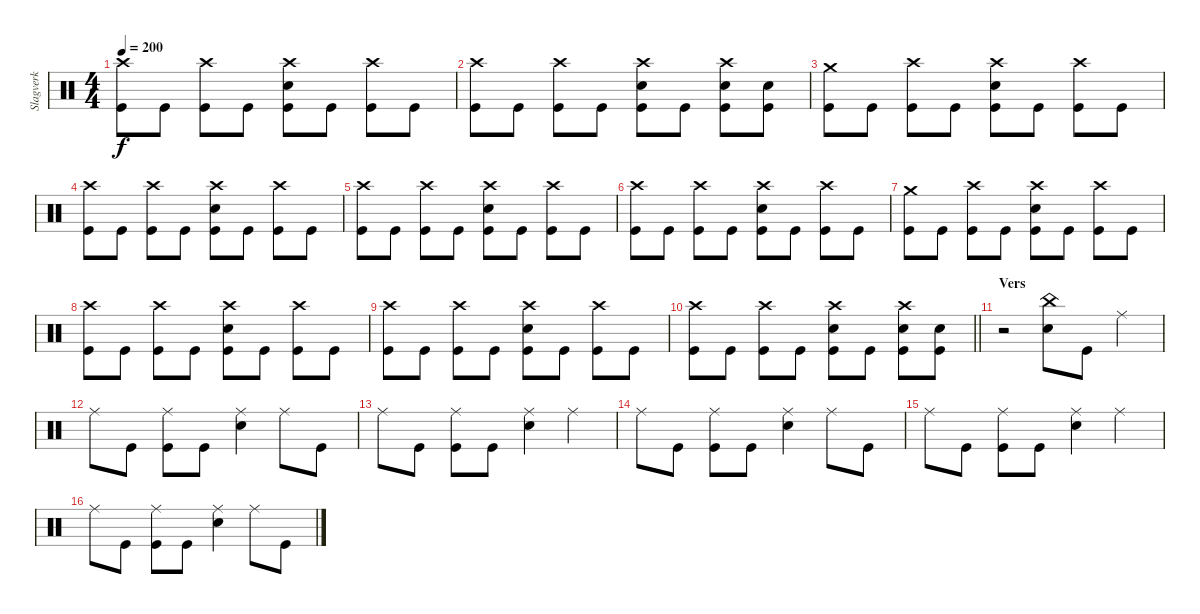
\track ("Slagverk" "Slagverk") {instrument percussion}
\staff {score}
\articulation defaults
\ts (4 4)
\tempo 200
\clef neutral
\ks c
("Crash high (hit)" "Kick (hit)").8{dy f} "Kick (hit)".8 ("Crash high (hit)" "Kick (hit)").8 "Kick (hit)".8 ("Crash high (hit)" "Snare (hit) 2" "Kick (hit)").8 "Kick (hit)".8 ("Crash high (hit)" "Kick (hit)").8 "Kick (hit)".8 |
("Crash high (hit)" "Kick (hit)").8 "Kick (hit)".8 ("Crash high (hit)" "Kick (hit)").8 "Kick (hit)".8 ("Crash high (hit)" "Snare (hit) 2" "Kick (hit)").8 "Kick (hit)".8 ("Crash high (hit)" "Snare (hit) 2" "Kick (hit)").8 ("Snare (hit) 2" "Kick (hit)").8 |
("Crash medium (hit)" "Kick (hit)").8 "Kick (hit)".8 ("Crash high (hit)" "Kick (hit)").8 "Kick (hit)".8 ("Crash high (hit)" "Snare (hit) 2" "Kick (hit)").8 "Kick (hit)".8 ("Crash high (hit)" "Kick (hit)").8 "Kick (hit)".8 |
("Crash high (hit)" "Kick (hit)").8 "Kick (hit)".8 ("Crash high (hit)" "Kick (hit)").8 "Kick (hit)".8 ("Crash high (hit)" "Snare (hit) 2" "Kick (hit)").8 "Kick (hit)".8 ("Crash high (hit)" "Kick (hit)").8 "Kick (hit)".8 |
("Crash high (hit)" "Kick (hit)").8 "Kick (hit)".8 ("Crash high (hit)" "Kick (hit)").8 "Kick (hit)".8 ("Crash high (hit)" "Snare (hit) 2" "Kick (hit)").8 "Kick (hit)".8 ("Crash high (hit)" "Kick (hit)").8 "Kick (hit)".8 |
("Crash high (hit)" "Kick (hit)").8 "Kick (hit)".8 ("Crash high (hit)" "Kick (hit)").8 "Kick (hit)".8 ("Crash high (hit)" "Snare (hit) 2" "Kick (hit)").8 "Kick (hit)".8 ("Crash high (hit)" "Kick (hit)").8 "Kick (hit)".8 |
("Crash medium (hit)" "Kick (hit)").8 "Kick (hit)".8 ("Crash high (hit)" "Kick (hit)").8 "Kick (hit)".8 ("Crash high (hit)" "Snare (hit) 2" "Kick (hit)").8 "Kick (hit)".8 ("Crash high (hit)" "Kick (hit)").8 "Kick (hit)".8 |
("Crash high (hit)" "Kick (hit)").8 "Kick (hit)".8 ("Crash high (hit)" "Kick (hit)").8 "Kick (hit)".8 ("Crash high (hit)" "Snare (hit) 2" "Kick (hit)").8 "Kick (hit)".8 ("Crash high (hit)" "Kick (hit)").8 "Kick (hit)".8 |
("Crash high (hit)" "Kick (hit)").8 "Kick (hit)".8 ("Crash high (hit)" "Kick (hit)").8 "Kick (hit)".8 ("Crash high (hit)" "Snare (hit) 2" "Kick (hit)").8 "Kick (hit)".8 ("Crash high (hit)" "Kick (hit)").8 "Kick (hit)".8 |
\barLineRight lightlight
("Crash high (hit)" "Kick (hit)").8 "Kick (hit)".8 ("Crash high (hit)" "Kick (hit)").8 "Kick (hit)".8 ("Crash high (hit)" "Snare (hit) 2" "Kick (hit)").8 "Kick (hit)".8 ("Crash high (hit)" "Snare (hit) 2" "Kick (hit)").8 ("Snare (hit) 2" "Kick (hit)").8 |
\section ("" "Vers")
r.2 ("China (hit)" "Snare (hit) 2").8 "Kick (hit)".8 "Ride (middle)".4 |
"Ride (middle)".8 "Kick (hit)".8 ("Ride (middle)" "Kick (hit)").8 "Kick (hit)".8 ("Ride (middle)" "Snare (hit) 2").4 "Ride (middle)".8 "Kick (hit)".8 |
"Ride (middle)".8 "Kick (hit)".8 ("Ride (middle)" "Kick (hit)").8 "Kick (hit)".8 ("Ride (middle)" "Snare (hit) 2").4 "Ride (middle)".4 |
"Ride (middle)".8 "Kick (hit)".8 ("Ride (middle)" "Kick (hit)").8 "Kick (hit)".8 ("Ride (middle)" "Snare (hit) 2").4 "Ride (middle)".8 "Kick (hit)".8 |
"Ride (middle)".8 "Kick (hit)".8 ("Ride (middle)" "Kick (hit)").8 "Kick (hit)".8 ("Ride (middle)" "Snare (hit) 2").4 "Ride (middle)".4 |
"Ride (middle)".8 "Kick (hit)".8 ("Ride (middle)" "Kick (hit)").8 "Kick (hit)".8 ("Ride (middle)" "Snare (hit) 2").4 "Ride (middle)".8 "Kick (hit)".8
